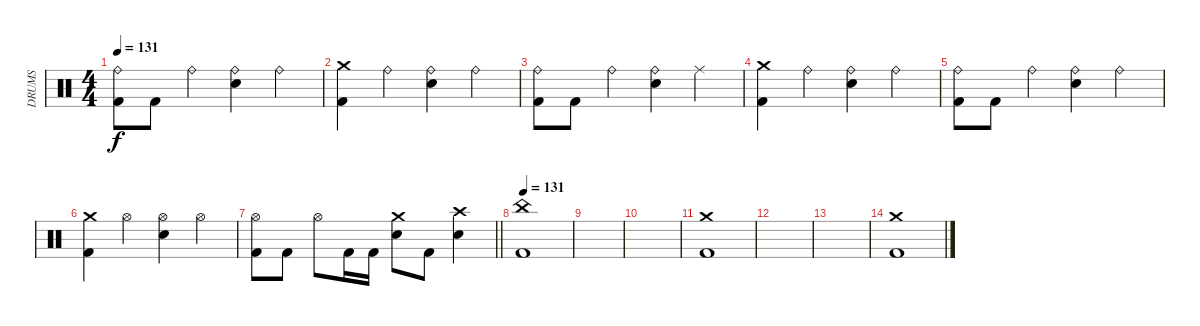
\track ("DRUMS" "DRUMS") {instrument percussion}
\staff {score}
\articulation defaults
\ts (4 4)
\tempo 131
\clef neutral
\ks c
("Ride (bell)" "Kick (hit) 2").8{dy f} "Kick (hit) 2".8 "Ride (bell)".4 ("Ride (bell)" "Snare (hit) 2").4 "Ride (bell)".4 |
("Crash medium (hit)" "Kick (hit) 2").4 "Ride (bell)".4 ("Ride (bell)" "Snare (hit) 2").4 "Ride (bell)".4 |
("Ride (bell)" "Kick (hit) 2").8 "Kick (hit) 2".8 "Ride (bell)".4 ("Ride (bell)" "Snare (hit) 2").4 "Ride (middle)".4 |
("Crash medium (hit)" "Kick (hit) 2").4 "Ride (bell)".4 ("Ride (bell)" "Snare (hit) 2").4 "Ride (bell)".4 |
("Ride (bell)" "Kick (hit) 2").8 "Kick (hit) 2".8 "Ride (bell)".4 ("Ride (bell)" "Snare (hit) 2").4 "Ride (bell)".4 |
("Crash medium (hit)" "Kick (hit) 2").4 "Hi-Hat (open)".4 ("Hi-Hat (open)" "Snare (hit) 2").4 "Hi-Hat (open)".4 |
\barLineRight lightlight
("Hi-Hat (open)" "Kick (hit) 2").8 "Kick (hit) 2".8 "Hi-Hat (open)".8 "Kick (hit) 2".16 "Kick (hit) 2".16 ("Crash medium (hit)" "Snare (hit) 2").8 "Kick (hit) 2".8 ("Crash high (hit)" "Snare (hit) 2").4 |
\tempo 131
("China (hit)" "Kick (hit) 2").1 |
|
|
("Crash medium (hit)" "Kick (hit) 2").1 |
|
|
("Crash medium (hit)" "Kick (hit) 2").1
